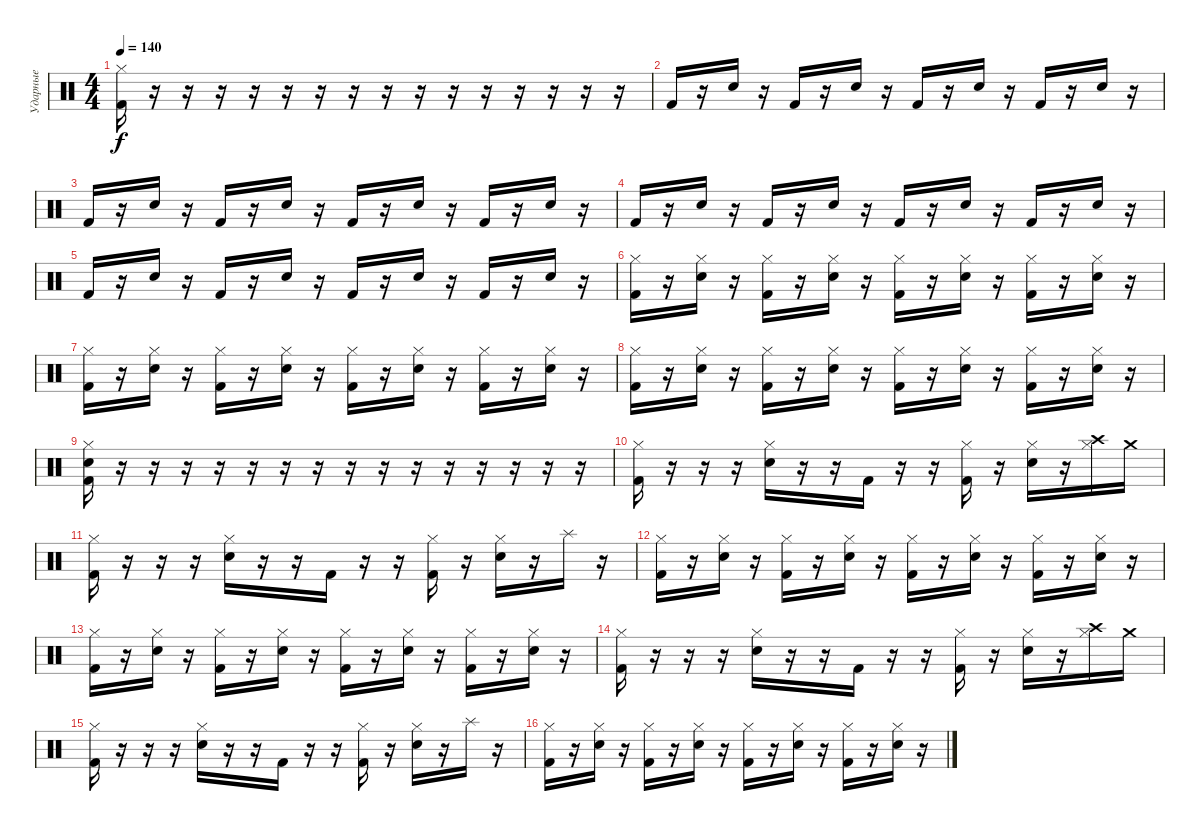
\track ("Ударные" "Ударные") {instrument percussion}
\staff {score}
\articulation defaults
\ts (4 4)
\tempo 140
\clef neutral
\ks c
("Hi-Hat (closed)" "Kick (hit) 2").16{dy f} r.16 r.16 r.16 r.16 r.16 r.16 r.16 r.16 r.16 r.16 r.16 r.16 r.16 r.16 r.16 |
"Kick (hit) 2".16 r.16 "Electric Snare (hit)".16 r.16 "Kick (hit) 2".16 r.16 "Electric Snare (hit)".16 r.16 "Kick (hit) 2".16 r.16 "Electric Snare (hit)".16 r.16 "Kick (hit) 2".16 r.16 "Electric Snare (hit)".16 r.16 |
"Kick (hit) 2".16 r.16 "Electric Snare (hit)".16 r.16 "Kick (hit) 2".16 r.16 "Electric Snare (hit)".16 r.16 "Kick (hit) 2".16 r.16 "Electric Snare (hit)".16 r.16 "Kick (hit) 2".16 r.16 "Electric Snare (hit)".16 r.16 |
"Kick (hit) 2".16 r.16 "Electric Snare (hit)".16 r.16 "Kick (hit) 2".16 r.16 "Electric Snare (hit)".16 r.16 "Kick (hit) 2".16 r.16 "Electric Snare (hit)".16 r.16 "Kick (hit) 2".16 r.16 "Electric Snare (hit)".16 r.16 |
"Kick (hit) 2".16 r.16 "Electric Snare (hit)".16 r.16 "Kick (hit) 2".16 r.16 "Electric Snare (hit)".16 r.16 "Kick (hit) 2".16 r.16 "Electric Snare (hit)".16 r.16 "Kick (hit) 2".16 r.16 "Electric Snare (hit)".16 r.16 |
("Kick (hit) 2" "Hi-Hat (closed)").16 r.16 ("Electric Snare (hit)" "Hi-Hat (closed)").16 r.16 ("Kick (hit) 2" "Hi-Hat (closed)").16 r.16 ("Electric Snare (hit)" "Hi-Hat (closed)").16 r.16 ("Kick (hit) 2" "Hi-Hat (closed)").16 r.16 ("Electric Snare (hit)" "Hi-Hat (closed)").16 r.16 ("Kick (hit) 2" "Hi-Hat (closed)").16 r.16 ("Electric Snare (hit)" "Hi-Hat (closed)").16 r.16 |
("Kick (hit) 2" "Hi-Hat (closed)").16 r.16 ("Electric Snare (hit)" "Hi-Hat (closed)").16 r.16 ("Kick (hit) 2" "Hi-Hat (closed)").16 r.16 ("Electric Snare (hit)" "Hi-Hat (closed)").16 r.16 ("Kick (hit) 2" "Hi-Hat (closed)").16 r.16 ("Electric Snare (hit)" "Hi-Hat (closed)").16 r.16 ("Kick (hit) 2" "Hi-Hat (closed)").16 r.16 ("Electric Snare (hit)" "Hi-Hat (closed)").16 r.16 |
("Kick (hit) 2" "Hi-Hat (closed)").16 r.16 ("Electric Snare (hit)" "Hi-Hat (closed)").16 r.16 ("Kick (hit) 2" "Hi-Hat (closed)").16 r.16 ("Electric Snare (hit)" "Hi-Hat (closed)").16 r.16 ("Kick (hit) 2" "Hi-Hat (closed)").16 r.16 ("Electric Snare (hit)" "Hi-Hat (closed)").16 r.16 ("Kick (hit) 2" "Hi-Hat (closed)").16 r.16 ("Electric Snare (hit)" "Hi-Hat (closed)").16 r.16 |
("Electric Snare (hit)" "Kick (hit) 2" "Hi-Hat (closed)").16 r.16 r.16 r.16 r.16 r.16 r.16 r.16 r.16 r.16 r.16 r.16 r.16 r.16 r.16 r.16 |
("Kick (hit) 2" "Hi-Hat (closed)").16 r.16 r.16 r.16 ("Electric Snare (hit)" "Hi-Hat (closed)").16 r.16 r.16 "Kick (hit) 2".16 r.16 r.16 ("Kick (hit) 2" "Hi-Hat (closed)").16 r.16 ("Electric Snare (hit)" "Hi-Hat (closed)").16 r.16 ("Crash high (hit)" "Hi-Hat (closed)").16 "Crash medium (hit)".16 |
("Kick (hit) 2" "Hi-Hat (closed)").16 r.16 r.16 r.16 ("Electric Snare (hit)" "Hi-Hat (closed)").16 r.16 r.16 "Kick (hit) 2".16 r.16 r.16 ("Kick (hit) 2" "Hi-Hat (closed)").16 r.16 ("Electric Snare (hit)" "Hi-Hat (closed)").16 r.16 "Splash (hit)".16 r.16 |
("Kick (hit) 2" "Hi-Hat (closed)").16 r.16 ("Electric Snare (hit)" "Hi-Hat (closed)").16 r.16 ("Kick (hit) 2" "Hi-Hat (closed)").16 r.16 ("Electric Snare (hit)" "Hi-Hat (closed)").16 r.16 ("Kick (hit) 2" "Hi-Hat (closed)").16 r.16 ("Electric Snare (hit)" "Hi-Hat (closed)").16 r.16 ("Kick (hit) 2" "Hi-Hat (closed)").16 r.16 ("Electric Snare (hit)" "Hi-Hat (closed)").16 r.16 |
("Kick (hit) 2" "Hi-Hat (closed)").16 r.16 ("Electric Snare (hit)" "Hi-Hat (closed)").16 r.16 ("Kick (hit) 2" "Hi-Hat (closed)").16 r.16 ("Electric Snare (hit)" "Hi-Hat (closed)").16 r.16 ("Kick (hit) 2" "Hi-Hat (closed)").16 r.16 ("Electric Snare (hit)" "Hi-Hat (closed)").16 r.16 ("Kick (hit) 2" "Hi-Hat (closed)").16 r.16 ("Electric Snare (hit)" "Hi-Hat (closed)").16 r.16 |
("Kick (hit) 2" "Hi-Hat (closed)").16 r.16 r.16 r.16 ("Electric Snare (hit)" "Hi-Hat (closed)").16 r.16 r.16 "Kick (hit) 2".16 r.16 r.16 ("Kick (hit) 2" "Hi-Hat (closed)").16 r.16 ("Electric Snare (hit)" "Hi-Hat (closed)").16 r.16 ("Crash high (hit)" "Hi-Hat (closed)").16 "Crash medium (hit)".16 |
("Kick (hit) 2" "Hi-Hat (closed)").16 r.16 r.16 r.16 ("Electric Snare (hit)" "Hi-Hat (closed)").16 r.16 r.16 "Kick (hit) 2".16 r.16 r.16 ("Kick (hit) 2" "Hi-Hat (closed)").16 r.16 ("Electric Snare (hit)" "Hi-Hat (closed)").16 r.16 "Splash (hit)".16 r.16 |
("Kick (hit) 2" "Hi-Hat (closed)").16 r.16 ("Electric Snare (hit)" "Hi-Hat (closed)").16 r.16 ("Kick (hit) 2" "Hi-Hat (closed)").16 r.16 ("Electric Snare (hit)" "Hi-Hat (closed)").16 r.16 ("Kick (hit) 2" "Hi-Hat (closed)").16 r.16 ("Electric Snare (hit)" "Hi-Hat (closed)").16 r.16 ("Kick (hit) 2" "Hi-Hat (closed)").16 r.16 ("Electric Snare (hit)" "Hi-Hat (closed)").16 r.16
